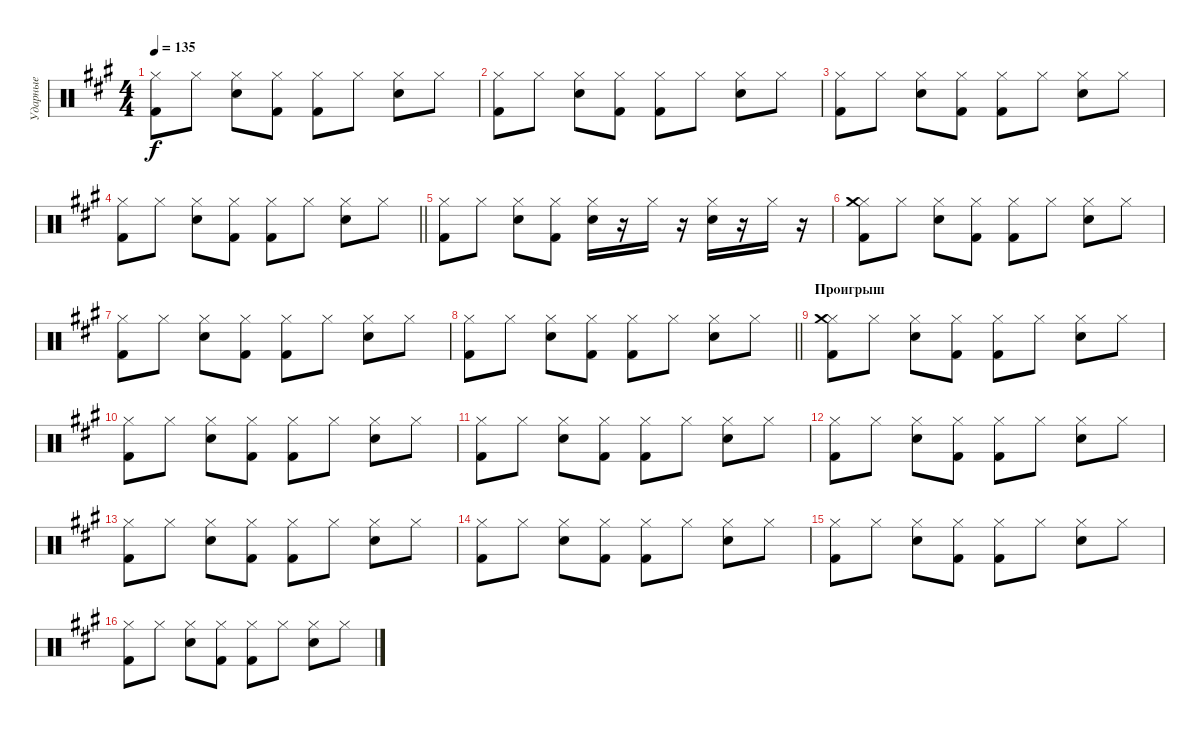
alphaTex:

\track ("Ударные" "Ударные") {instrument percussion}
\staff {score}
\articulation defaults
\ts (4 4)
\tempo 135
\clef neutral
\ks f#minor
("Hi-Hat (closed)" "Kick (hit) 2").8{dy f} "Hi-Hat (closed)".8 ("Hi-Hat (closed)" "Electric Snare (hit)").8 ("Hi-Hat (closed)" "Kick (hit) 2").8 ("Hi-Hat (closed)" "Kick (hit) 2").8 "Hi-Hat (closed)".8 ("Hi-Hat (closed)" "Electric Snare (hit)").8 "Hi-Hat (closed)".8 |
("Hi-Hat (closed)" "Kick (hit) 2").8 "Hi-Hat (closed)".8 ("Hi-Hat (closed)" "Electric Snare (hit)").8 ("Hi-Hat (closed)" "Kick (hit) 2").8 ("Hi-Hat (closed)" "Kick (hit) 2").8 "Hi-Hat (closed)".8 ("Hi-Hat (closed)" "Electric Snare (hit)").8 "Hi-Hat (closed)".8 |
("Hi-Hat (closed)" "Kick (hit) 2").8 "Hi-Hat (closed)".8 ("Hi-Hat (closed)" "Electric Snare (hit)").8 ("Hi-Hat (closed)" "Kick (hit) 2").8 ("Hi-Hat (closed)" "Kick (hit) 2").8 "Hi-Hat (closed)".8 ("Hi-Hat (closed)" "Electric Snare (hit)").8 "Hi-Hat (closed)".8 |
\barLineRight lightlight
("Hi-Hat (closed)" "Kick (hit) 2").8 "Hi-Hat (closed)".8 ("Hi-Hat (closed)" "Electric Snare (hit)").8 ("Hi-Hat (closed)" "Kick (hit) 2").8 ("Hi-Hat (closed)" "Kick (hit) 2").8 "Hi-Hat (closed)".8 ("Hi-Hat (closed)" "Electric Snare (hit)").8 "Hi-Hat (closed)".8 |
("Hi-Hat (closed)" "Kick (hit) 2").8 "Hi-Hat (closed)".8 ("Hi-Hat (closed)" "Electric Snare (hit)").8 ("Hi-Hat (closed)" "Kick (hit) 2").8 ("Hi-Hat (closed)" "Electric Snare (hit)").16 r.16 "Hi-Hat (closed)".16 r.16 ("Hi-Hat (closed)" "Electric Snare (hit)").16 r.16 "Hi-Hat (closed)".16 r.16 |
("Hi-Hat (closed)" "Crash medium (hit)" "Kick (hit) 2").8 "Hi-Hat (closed)".8 ("Hi-Hat (closed)" "Electric Snare (hit)").8 ("Hi-Hat (closed)" "Kick (hit) 2").8 ("Hi-Hat (closed)" "Kick (hit) 2").8 "Hi-Hat (closed)".8 ("Hi-Hat (closed)" "Electric Snare (hit)").8 "Hi-Hat (closed)".8 |
("Hi-Hat (closed)" "Kick (hit) 2").8 "Hi-Hat (closed)".8 ("Hi-Hat (closed)" "Electric Snare (hit)").8 ("Hi-Hat (closed)" "Kick (hit) 2").8 ("Hi-Hat (closed)" "Kick (hit) 2").8 "Hi-Hat (closed)".8 ("Hi-Hat (closed)" "Electric Snare (hit)").8 "Hi-Hat (closed)".8 |
\barLineRight lightlight
("Hi-Hat (closed)" "Kick (hit) 2").8 "Hi-Hat (closed)".8 ("Hi-Hat (closed)" "Electric Snare (hit)").8 ("Hi-Hat (closed)" "Kick (hit) 2").8 ("Hi-Hat (closed)" "Kick (hit) 2").8 "Hi-Hat (closed)".8 ("Hi-Hat (closed)" "Electric Snare (hit)").8 "Hi-Hat (closed)".8 |
\section ("" "Проигрыш")
("Hi-Hat (closed)" "Crash medium (hit)" "Kick (hit) 2").8 "Hi-Hat (closed)".8 ("Hi-Hat (closed)" "Electric Snare (hit)").8 ("Hi-Hat (closed)" "Kick (hit) 2").8 ("Hi-Hat (closed)" "Kick (hit) 2").8 "Hi-Hat (closed)".8 ("Hi-Hat (closed)" "Electric Snare (hit)").8 "Hi-Hat (closed)".8 |
("Hi-Hat (closed)" "Kick (hit) 2").8 "Hi-Hat (closed)".8 ("Hi-Hat (closed)" "Electric Snare (hit)").8 ("Hi-Hat (closed)" "Kick (hit) 2").8 ("Hi-Hat (closed)" "Kick (hit) 2").8 "Hi-Hat (closed)".8 ("Hi-Hat (closed)" "Electric Snare (hit)").8 "Hi-Hat (closed)".8 |
("Hi-Hat (closed)" "Kick (hit) 2").8 "Hi-Hat (closed)".8 ("Hi-Hat (closed)" "Electric Snare (hit)").8 ("Hi-Hat (closed)" "Kick (hit) 2").8 ("Hi-Hat (closed)" "Kick (hit) 2").8 "Hi-Hat (closed)".8 ("Hi-Hat (closed)" "Electric Snare (hit)").8 "Hi-Hat (closed)".8 |
("Hi-Hat (closed)" "Kick (hit) 2").8 "Hi-Hat (closed)".8 ("Hi-Hat (closed)" "Electric Snare (hit)").8 ("Hi-Hat (closed)" "Kick (hit) 2").8 ("Hi-Hat (closed)" "Kick (hit) 2").8 "Hi-Hat (closed)".8 ("Hi-Hat (closed)" "Electric Snare (hit)").8 "Hi-Hat (closed)".8 |
("Hi-Hat (closed)" "Kick (hit) 2").8 "Hi-Hat (closed)".8 ("Hi-Hat (closed)" "Electric Snare (hit)").8 ("Hi-Hat (closed)" "Kick (hit) 2").8 ("Hi-Hat (closed)" "Kick (hit) 2").8 "Hi-Hat (closed)".8 ("Hi-Hat (closed)" "Electric Snare (hit)").8 "Hi-Hat (closed)".8 |
("Hi-Hat (closed)" "Kick (hit) 2").8 "Hi-Hat (closed)".8 ("Hi-Hat (closed)" "Electric Snare (hit)").8 ("Hi-Hat (closed)" "Kick (hit) 2").8 ("Hi-Hat (closed)" "Kick (hit) 2").8 "Hi-Hat (closed)".8 ("Hi-Hat (closed)" "Electric Snare (hit)").8 "Hi-Hat (closed)".8 |
("Hi-Hat (closed)" "Kick (hit) 2").8 "Hi-Hat (closed)".8 ("Hi-Hat (closed)" "Electric Snare (hit)").8 ("Hi-Hat (closed)" "Kick (hit) 2").8 ("Hi-Hat (closed)" "Kick (hit) 2").8 "Hi-Hat (closed)".8 ("Hi-Hat (closed)" "Electric Snare (hit)").8 "Hi-Hat (closed)".8 |
("Hi-Hat (closed)" "Kick (hit) 2").8 "Hi-Hat (closed)".8 ("Hi-Hat (closed)" "Electric Snare (hit)").8 ("Hi-Hat (closed)" "Kick (hit) 2").8 ("Hi-Hat (closed)" "Kick (hit) 2").8 "Hi-Hat (closed)".8 ("Hi-Hat (closed)" "Electric Snare (hit)").8 "Hi-Hat (closed)".8
